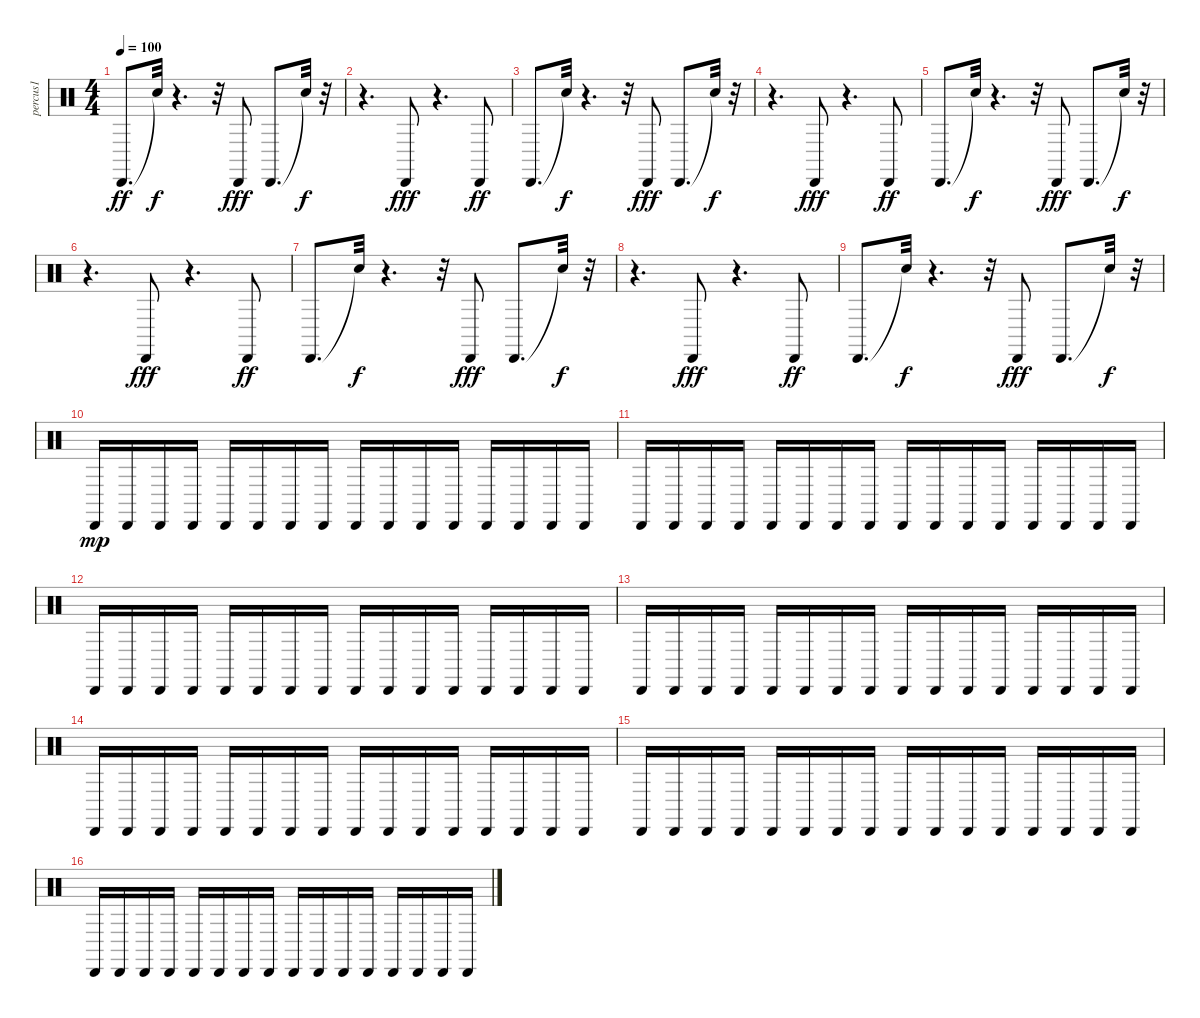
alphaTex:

\track ("percus1" "percus1") {instrument percussion}
\staff {score}
\articulation defaults
\ts (4 4)
\tempo 100
\clef neutral
\ks c "Cabasa (hit)".8{d dy ff} "Snare (hit)"{t}.32{dy f}
r.4{d} r.32 "Cabasa (hit)".8{dy fff} "Cabasa (hit)".8{d} "Snare (hit)"{t}.32{dy f} r.32 |
r.4{d} "Cabasa (hit)".8{dy fff} r.4{d} "Cabasa (hit)".8{dy ff} |
"Cabasa (hit)".8{d} "Snare (hit)"{t}.32{dy f} r.4{d} r.32 "Cabasa (hit)".8{dy fff} "Cabasa (hit)".8{d} "Snare (hit)"{t}.32{dy f} r.32 |
r.4{d} "Cabasa (hit)".8{dy fff} r.4{d} "Cabasa (hit)".8{dy ff} |
"Cabasa (hit)".8{d} "Snare (hit)"{t}.32{dy f} r.4{d} r.32 "Cabasa (hit)".8{dy fff} "Cabasa (hit)".8{d} "Snare (hit)"{t}.32{dy f} r.32 |
r.4{d} "Cabasa (hit)".8{dy fff} r.4{d} "Cabasa (hit)".8{dy ff} |
"Cabasa (hit)".8{d} "Snare (hit)"{t}.32{dy f} r.4{d} r.32 "Cabasa (hit)".8{dy fff} "Cabasa (hit)".8{d} "Snare (hit)"{t}.32{dy f} r.32 |
r.4{d} "Cabasa (hit)".8{dy fff} r.4{d} "Cabasa (hit)".8{dy ff} |
"Cabasa (hit)".8{d} "Snare (hit)"{t}.32{dy f} r.4{d} r.32 "Cabasa (hit)".8{dy fff} "Cabasa (hit)".8{d} "Snare (hit)"{t}.32{dy f} r.32 |
"Cabasa (hit)".16{dy mp} "Cabasa (hit)".16 "Cabasa (hit)".16 "Cabasa (hit)".16 "Cabasa (hit)".16 "Cabasa (hit)".16 "Cabasa (hit)".16 "Cabasa (hit)".16 "Cabasa (hit)".16 "Cabasa (hit)".16 "Cabasa (hit)".16 "Cabasa (hit)".16 "Cabasa (hit)".16 "Cabasa (hit)".16 "Cabasa (hit)".16 "Cabasa (hit)".16 |
"Cabasa (hit)".16 "Cabasa (hit)".16 "Cabasa (hit)".16 "Cabasa (hit)".16 "Cabasa (hit)".16 "Cabasa (hit)".16 "Cabasa (hit)".16 "Cabasa (hit)".16 "Cabasa (hit)".16 "Cabasa (hit)".16 "Cabasa (hit)".16 "Cabasa (hit)".16 "Cabasa (hit)".16 "Cabasa (hit)".16 "Cabasa (hit)".16 "Cabasa (hit)".16 |
"Cabasa (hit)".16 "Cabasa (hit)".16 "Cabasa (hit)".16 "Cabasa (hit)".16 "Cabasa (hit)".16 "Cabasa (hit)".16 "Cabasa (hit)".16 "Cabasa (hit)".16 "Cabasa (hit)".16 "Cabasa (hit)".16 "Cabasa (hit)".16 "Cabasa (hit)".16 "Cabasa (hit)".16 "Cabasa (hit)".16 "Cabasa (hit)".16 "Cabasa (hit)".16 |
"Cabasa (hit)".16 "Cabasa (hit)".16 "Cabasa (hit)".16 "Cabasa (hit)".16 "Cabasa (hit)".16 "Cabasa (hit)".16 "Cabasa (hit)".16 "Cabasa (hit)".16 "Cabasa (hit)".16 "Cabasa (hit)".16 "Cabasa (hit)".16 "Cabasa (hit)".16 "Cabasa (hit)".16 "Cabasa (hit)".16 "Cabasa (hit)".16 "Cabasa (hit)".16 |
"Cabasa (hit)".16 "Cabasa (hit)".16 "Cabasa (hit)".16 "Cabasa (hit)".16 "Cabasa (hit)".16 "Cabasa (hit)".16 "Cabasa (hit)".16 "Cabasa (hit)".16 "Cabasa (hit)".16 "Cabasa (hit)".16 "Cabasa (hit)".16 "Cabasa (hit)".16 "Cabasa (hit)".16 "Cabasa (hit)".16 "Cabasa (hit)".16 "Cabasa (hit)".16 |
"Cabasa (hit)".16 "Cabasa (hit)".16 "Cabasa (hit)".16 "Cabasa (hit)".16 "Cabasa (hit)".16 "Cabasa (hit)".16 "Cabasa (hit)".16 "Cabasa (hit)".16 "Cabasa (hit)".16 "Cabasa (hit)".16 "Cabasa (hit)".16 "Cabasa (hit)".16 "Cabasa (hit)".16 "Cabasa (hit)".16 "Cabasa (hit)".16 "Cabasa (hit)".16 |
"Cabasa (hit)".16 "Cabasa (hit)".16 "Cabasa (hit)".16 "Cabasa (hit)".16 "Cabasa (hit)".16 "Cabasa (hit)".16 "Cabasa (hit)".16 "Cabasa (hit)".16 "Cabasa (hit)".16 "Cabasa (hit)".16 "Cabasa (hit)".16 "Cabasa (hit)".16 "Cabasa (hit)".16 "Cabasa (hit)".16 "Cabasa (hit)".16 "Cabasa (hit)".16
